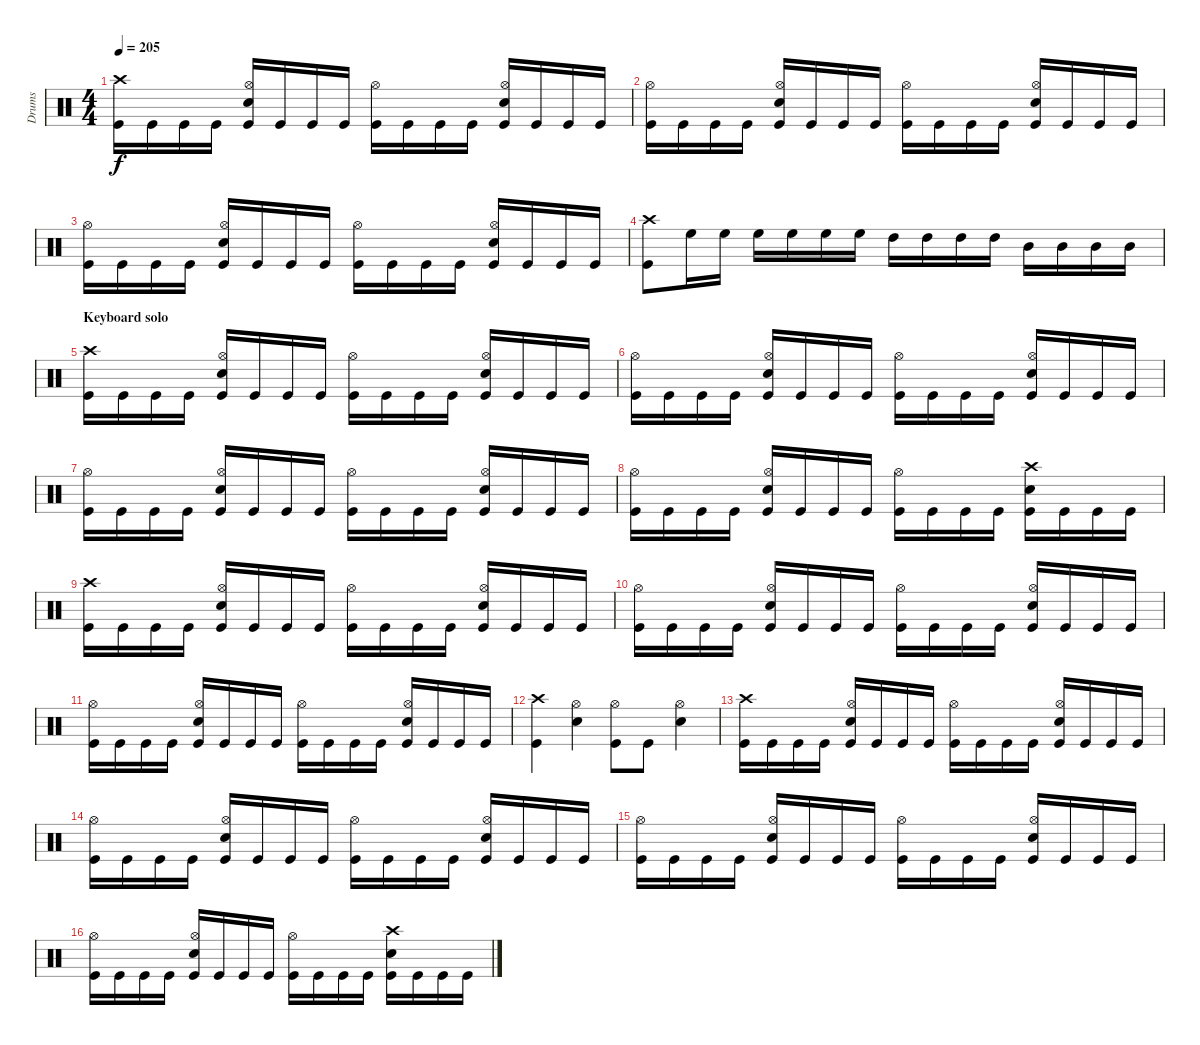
\track ("Drums" "Drums") {instrument percussion}
\staff {score}
\articulation defaults
\ts (4 4)
\tempo 205
\clef neutral
\ks c
("Crash high (hit)" "Kick (hit)").16{dy f} "Kick (hit)".16 "Kick (hit)".16 "Kick (hit)".16 ("Hi-Hat (open)" "Snare (hit) 2" "Kick (hit)").16 "Kick (hit)".16 "Kick (hit)".16 "Kick (hit)".16 ("Hi-Hat (open)" "Kick (hit)").16 "Kick (hit)".16 "Kick (hit)".16 "Kick (hit)".16 ("Hi-Hat (open)" "Snare (hit) 2" "Kick (hit)").16 "Kick (hit)".16 "Kick (hit)".16 "Kick (hit)".16 |
("Hi-Hat (open)" "Kick (hit)").16 "Kick (hit)".16 "Kick (hit)".16 "Kick (hit)".16 ("Hi-Hat (open)" "Snare (hit) 2" "Kick (hit)").16 "Kick (hit)".16 "Kick (hit)".16 "Kick (hit)".16 ("Hi-Hat (open)" "Kick (hit)").16 "Kick (hit)".16 "Kick (hit)".16 "Kick (hit)".16 ("Hi-Hat (open)" "Snare (hit) 2" "Kick (hit)").16 "Kick (hit)".16 "Kick (hit)".16 "Kick (hit)".16 |
("Hi-Hat (open)" "Kick (hit)").16 "Kick (hit)".16 "Kick (hit)".16 "Kick (hit)".16 ("Hi-Hat (open)" "Snare (hit) 2" "Kick (hit)").16 "Kick (hit)".16 "Kick (hit)".16 "Kick (hit)".16 ("Hi-Hat (open)" "Kick (hit)").16 "Kick (hit)".16 "Kick (hit)".16 "Kick (hit)".16 ("Hi-Hat (open)" "Snare (hit) 2" "Kick (hit)").16 "Kick (hit)".16 "Kick (hit)".16 "Kick (hit)".16 |
("Crash high (hit)" "Kick (hit)").8 "High Floor Tom (hit)".16 "High Floor Tom (hit)".16 "High Floor Tom (hit)".16 "High Floor Tom (hit)".16 "High Floor Tom (hit)".16 "High Floor Tom (hit)".16 "High Tom (hit)".16 "High Tom (hit)".16 "High Tom (hit)".16 "High Tom (hit)".16 "Mid Tom (hit)".16 "Mid Tom (hit)".16 "Mid Tom (hit)".16 "Mid Tom (hit)".16 |
\section ("" "Keyboard solo")
("Crash high (hit)" "Kick (hit)").16 "Kick (hit)".16 "Kick (hit)".16 "Kick (hit)".16 ("Hi-Hat (open)" "Snare (hit) 2" "Kick (hit)").16 "Kick (hit)".16 "Kick (hit)".16 "Kick (hit)".16 ("Hi-Hat (open)" "Kick (hit)").16 "Kick (hit)".16 "Kick (hit)".16 "Kick (hit)".16 ("Hi-Hat (open)" "Snare (hit) 2" "Kick (hit)").16 "Kick (hit)".16 "Kick (hit)".16 "Kick (hit)".16 |
("Hi-Hat (open)" "Kick (hit)").16 "Kick (hit)".16 "Kick (hit)".16 "Kick (hit)".16 ("Hi-Hat (open)" "Snare (hit) 2" "Kick (hit)").16 "Kick (hit)".16 "Kick (hit)".16 "Kick (hit)".16 ("Hi-Hat (open)" "Kick (hit)").16 "Kick (hit)".16 "Kick (hit)".16 "Kick (hit)".16 ("Hi-Hat (open)" "Snare (hit) 2" "Kick (hit)").16 "Kick (hit)".16 "Kick (hit)".16 "Kick (hit)".16 |
("Hi-Hat (open)" "Kick (hit)").16 "Kick (hit)".16 "Kick (hit)".16 "Kick (hit)".16 ("Hi-Hat (open)" "Snare (hit) 2" "Kick (hit)").16 "Kick (hit)".16 "Kick (hit)".16 "Kick (hit)".16 ("Hi-Hat (open)" "Kick (hit)").16 "Kick (hit)".16 "Kick (hit)".16 "Kick (hit)".16 ("Hi-Hat (open)" "Snare (hit) 2" "Kick (hit)").16 "Kick (hit)".16 "Kick (hit)".16 "Kick (hit)".16 |
("Hi-Hat (open)" "Kick (hit)").16 "Kick (hit)".16 "Kick (hit)".16 "Kick (hit)".16 ("Hi-Hat (open)" "Snare (hit) 2" "Kick (hit)").16 "Kick (hit)".16 "Kick (hit)".16 "Kick (hit)".16 ("Hi-Hat (open)" "Kick (hit)").16 "Kick (hit)".16 "Kick (hit)".16 "Kick (hit)".16 ("Crash high (hit)" "Snare (hit) 2" "Kick (hit)").16 "Kick (hit)".16 "Kick (hit)".16 "Kick (hit)".16 |
("Crash high (hit)" "Kick (hit)").16 "Kick (hit)".16 "Kick (hit)".16 "Kick (hit)".16 ("Hi-Hat (open)" "Snare (hit) 2" "Kick (hit)").16 "Kick (hit)".16 "Kick (hit)".16 "Kick (hit)".16 ("Hi-Hat (open)" "Kick (hit)").16 "Kick (hit)".16 "Kick (hit)".16 "Kick (hit)".16 ("Hi-Hat (open)" "Snare (hit) 2" "Kick (hit)").16 "Kick (hit)".16 "Kick (hit)".16 "Kick (hit)".16 |
("Hi-Hat (open)" "Kick (hit)").16 "Kick (hit)".16 "Kick (hit)".16 "Kick (hit)".16 ("Hi-Hat (open)" "Snare (hit) 2" "Kick (hit)").16 "Kick (hit)".16 "Kick (hit)".16 "Kick (hit)".16 ("Hi-Hat (open)" "Kick (hit)").16 "Kick (hit)".16 "Kick (hit)".16 "Kick (hit)".16 ("Hi-Hat (open)" "Snare (hit) 2" "Kick (hit)").16 "Kick (hit)".16 "Kick (hit)".16 "Kick (hit)".16 |
("Hi-Hat (open)" "Kick (hit)").16 "Kick (hit)".16 "Kick (hit)".16 "Kick (hit)".16 ("Hi-Hat (open)" "Snare (hit) 2" "Kick (hit)").16 "Kick (hit)".16 "Kick (hit)".16 "Kick (hit)".16 ("Hi-Hat (open)" "Kick (hit)").16 "Kick (hit)".16 "Kick (hit)".16 "Kick (hit)".16 ("Hi-Hat (open)" "Snare (hit) 2" "Kick (hit)").16 "Kick (hit)".16 "Kick (hit)".16 "Kick (hit)".16 |
("Crash high (hit)" "Kick (hit)").4 ("Hi-Hat (open)" "Snare (hit) 2").4 ("Hi-Hat (open)" "Kick (hit)").8 "Kick (hit)".8 ("Hi-Hat (open)" "Snare (hit) 2").4 |
("Crash high (hit)" "Kick (hit)").16 "Kick (hit)".16 "Kick (hit)".16 "Kick (hit)".16 ("Hi-Hat (open)" "Snare (hit) 2" "Kick (hit)").16 "Kick (hit)".16 "Kick (hit)".16 "Kick (hit)".16 ("Hi-Hat (open)" "Kick (hit)").16 "Kick (hit)".16 "Kick (hit)".16 "Kick (hit)".16 ("Hi-Hat (open)" "Snare (hit) 2" "Kick (hit)").16 "Kick (hit)".16 "Kick (hit)".16 "Kick (hit)".16 |
("Hi-Hat (open)" "Kick (hit)").16 "Kick (hit)".16 "Kick (hit)".16 "Kick (hit)".16 ("Hi-Hat (open)" "Snare (hit) 2" "Kick (hit)").16 "Kick (hit)".16 "Kick (hit)".16 "Kick (hit)".16 ("Hi-Hat (open)" "Kick (hit)").16 "Kick (hit)".16 "Kick (hit)".16 "Kick (hit)".16 ("Hi-Hat (open)" "Snare (hit) 2" "Kick (hit)").16 "Kick (hit)".16 "Kick (hit)".16 "Kick (hit)".16 |
("Hi-Hat (open)" "Kick (hit)").16 "Kick (hit)".16 "Kick (hit)".16 "Kick (hit)".16 ("Hi-Hat (open)" "Snare (hit) 2" "Kick (hit)").16 "Kick (hit)".16 "Kick (hit)".16 "Kick (hit)".16 ("Hi-Hat (open)" "Kick (hit)").16 "Kick (hit)".16 "Kick (hit)".16 "Kick (hit)".16 ("Hi-Hat (open)" "Snare (hit) 2" "Kick (hit)").16 "Kick (hit)".16 "Kick (hit)".16 "Kick (hit)".16 |
("Hi-Hat (open)" "Kick (hit)").16 "Kick (hit)".16 "Kick (hit)".16 "Kick (hit)".16 ("Hi-Hat (open)" "Snare (hit) 2" "Kick (hit)").16 "Kick (hit)".16 "Kick (hit)".16 "Kick (hit)".16 ("Hi-Hat (open)" "Kick (hit)").16 "Kick (hit)".16 "Kick (hit)".16 "Kick (hit)".16 ("Crash high (hit)" "Snare (hit) 2" "Kick (hit)").16 "Kick (hit)".16 "Kick (hit)".16 "Kick (hit)".16
